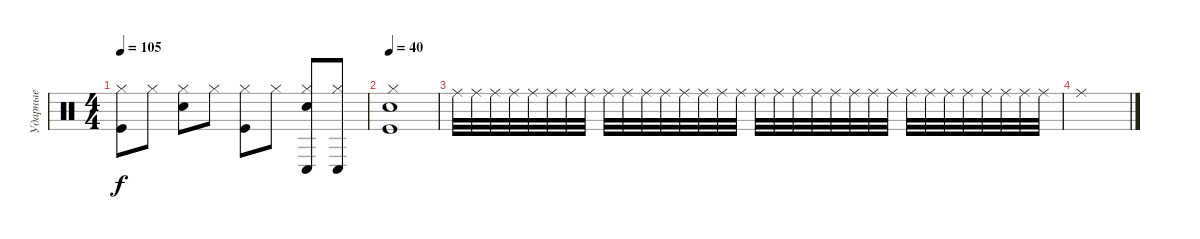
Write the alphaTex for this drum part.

\track ("Ударные" "Ударные") {instrument percussion}
\staff {score}
\articulation defaults
\ts (4 4)
\tempo 105
\clef neutral
\ks c
("Kick (hit)" "Hi-Hat (closed)").8{dy f} "Hi-Hat (closed)".8 ("Snare (hit) 2" "Hi-Hat (closed)").8 "Hi-Hat (closed)".8 ("Hi-Hat (closed)" "Kick (hit)").8 "Hi-Hat (closed)".8 ("Hi-Hat (closed)" "Conga low (hit)" "Snare (hit) 2").8 ("Hi-Hat (closed)" "Conga low (hit)").8 |
\tempo 40
("Kick (hit)" "Hi-Hat (closed)" "Snare (hit) 2").1 |
"Ride (middle)".32 "Ride (middle)".32 "Ride (middle)".32 "Ride (middle)".32 "Ride (middle)".32 "Ride (middle)".32 "Ride (middle)".32 "Ride (middle)".32 "Ride (middle)".32 "Ride (middle)".32 "Ride (middle)".32 "Ride (middle)".32 "Ride (middle)".32 "Ride (middle)".32 "Ride (middle)".32 "Ride (middle)".32 "Ride (middle)".32 "Ride (middle)".32 "Ride (middle)".32 "Ride (middle)".32 "Ride (middle)".32 "Ride (middle)".32 "Ride (middle)".32 "Ride (middle)".32 "Ride (middle)".32 "Ride (middle)".32 "Ride (middle)".32 "Ride (middle)".32 "Ride (middle)".32 "Ride (middle)".32 "Ride (middle)".32 "Ride (middle)".32 |
"Ride (middle)".1
